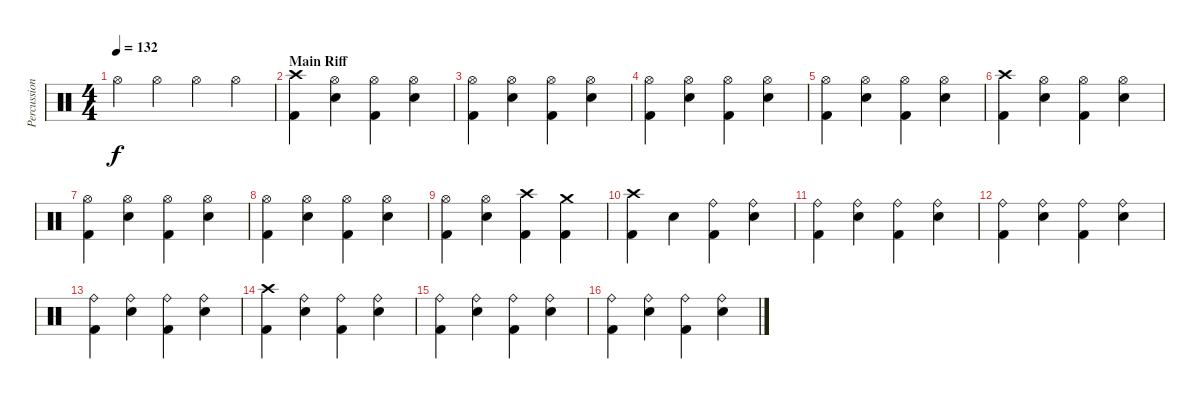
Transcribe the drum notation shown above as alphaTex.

\track ("Percussion" "Percussion") {instrument percussion}
\staff {score}
\articulation defaults
\ts (4 4)
\tempo 132
\clef neutral
\ks c "Hi-Hat (open)".4{dy f} "Hi-Hat (open)".4 "Hi-Hat (open)".4 "Hi-Hat (open)".4
|
\section ("" "Main Riff")
("Kick (hit) 2" "Crash high (hit)").4 ("Electric Snare (hit)" "Hi-Hat (open)").4 ("Kick (hit) 2" "Hi-Hat (open)").4 ("Electric Snare (hit)" "Hi-Hat (open)").4 |
("Kick (hit) 2" "Hi-Hat (open)").4 ("Electric Snare (hit)" "Hi-Hat (open)").4 ("Kick (hit) 2" "Hi-Hat (open)").4 ("Electric Snare (hit)" "Hi-Hat (open)").4 |
("Kick (hit) 2" "Hi-Hat (open)").4 ("Electric Snare (hit)" "Hi-Hat (open)").4 ("Kick (hit) 2" "Hi-Hat (open)").4 ("Electric Snare (hit)" "Hi-Hat (open)").4 |
("Kick (hit) 2" "Hi-Hat (open)").4 ("Electric Snare (hit)" "Hi-Hat (open)").4 ("Kick (hit) 2" "Hi-Hat (open)").4 ("Electric Snare (hit)" "Hi-Hat (open)").4 |
("Kick (hit) 2" "Crash high (hit)").4 ("Electric Snare (hit)" "Hi-Hat (open)").4 ("Kick (hit) 2" "Hi-Hat (open)").4 ("Electric Snare (hit)" "Hi-Hat (open)").4 |
("Kick (hit) 2" "Hi-Hat (open)").4 ("Electric Snare (hit)" "Hi-Hat (open)").4 ("Kick (hit) 2" "Hi-Hat (open)").4 ("Electric Snare (hit)" "Hi-Hat (open)").4 |
("Kick (hit) 2" "Hi-Hat (open)").4 ("Electric Snare (hit)" "Hi-Hat (open)").4 ("Kick (hit) 2" "Hi-Hat (open)").4 ("Electric Snare (hit)" "Hi-Hat (open)").4 |
("Kick (hit) 2" "Hi-Hat (open)").4 ("Electric Snare (hit)" "Hi-Hat (open)").4 ("Kick (hit) 2" "Crash high (hit)").4 ("Kick (hit) 2" "Crash medium (hit)").4 |
("Kick (hit) 2" "Crash high (hit)").4 "Electric Snare (hit)".4 ("Kick (hit) 2" "Ride (bell)").4 ("Electric Snare (hit)" "Ride (bell)").4 |
("Kick (hit) 2" "Ride (bell)").4 ("Electric Snare (hit)" "Ride (bell)").4 ("Kick (hit) 2" "Ride (bell)").4 ("Electric Snare (hit)" "Ride (bell)").4 |
("Kick (hit) 2" "Ride (bell)").4 ("Electric Snare (hit)" "Ride (bell)").4 ("Kick (hit) 2" "Ride (bell)").4 ("Electric Snare (hit)" "Ride (bell)").4 |
("Kick (hit) 2" "Ride (bell)").4 ("Electric Snare (hit)" "Ride (bell)").4 ("Kick (hit) 2" "Ride (bell)").4 ("Electric Snare (hit)" "Ride (bell)").4 |
("Kick (hit) 2" "Crash high (hit)").4 ("Electric Snare (hit)" "Ride (bell)").4 ("Kick (hit) 2" "Ride (bell)").4 ("Electric Snare (hit)" "Ride (bell)").4 |
("Kick (hit) 2" "Ride (bell)").4 ("Electric Snare (hit)" "Ride (bell)").4 ("Kick (hit) 2" "Ride (bell)").4 ("Electric Snare (hit)" "Ride (bell)").4 |
("Kick (hit) 2" "Ride (bell)").4 ("Electric Snare (hit)" "Ride (bell)").4 ("Kick (hit) 2" "Ride (bell)").4 ("Electric Snare (hit)" "Ride (bell)").4
